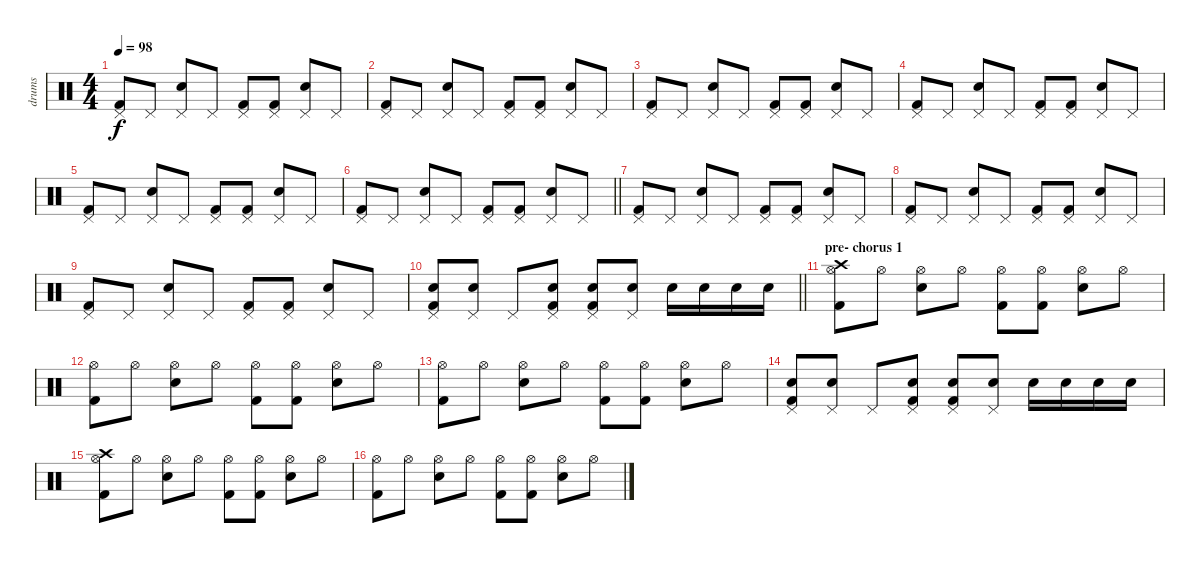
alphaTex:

\track ("drums" "drums") {instrument percussion}
\staff {score}
\articulation defaults
\ts (4 4)
\tempo 98
\clef neutral
\ks c
("Kick (hit) 2" "Pedal Hi-Hat (hit)").8{dy f} "Pedal Hi-Hat (hit)".8 ("Electric Snare (hit)" "Pedal Hi-Hat (hit)").8 "Pedal Hi-Hat (hit)".8 ("Kick (hit) 2" "Pedal Hi-Hat (hit)").8 ("Kick (hit) 2" "Pedal Hi-Hat (hit)").8 ("Electric Snare (hit)" "Pedal Hi-Hat (hit)").8 "Pedal Hi-Hat (hit)".8 |
("Kick (hit) 2" "Pedal Hi-Hat (hit)").8 "Pedal Hi-Hat (hit)".8 ("Electric Snare (hit)" "Pedal Hi-Hat (hit)").8 "Pedal Hi-Hat (hit)".8 ("Kick (hit) 2" "Pedal Hi-Hat (hit)").8 ("Kick (hit) 2" "Pedal Hi-Hat (hit)").8 ("Electric Snare (hit)" "Pedal Hi-Hat (hit)").8 "Pedal Hi-Hat (hit)".8 |
("Kick (hit) 2" "Pedal Hi-Hat (hit)").8 "Pedal Hi-Hat (hit)".8 ("Electric Snare (hit)" "Pedal Hi-Hat (hit)").8 "Pedal Hi-Hat (hit)".8 ("Kick (hit) 2" "Pedal Hi-Hat (hit)").8 ("Kick (hit) 2" "Pedal Hi-Hat (hit)").8 ("Electric Snare (hit)" "Pedal Hi-Hat (hit)").8 "Pedal Hi-Hat (hit)".8 |
("Kick (hit) 2" "Pedal Hi-Hat (hit)").8 "Pedal Hi-Hat (hit)".8 ("Electric Snare (hit)" "Pedal Hi-Hat (hit)").8 "Pedal Hi-Hat (hit)".8 ("Kick (hit) 2" "Pedal Hi-Hat (hit)").8 ("Kick (hit) 2" "Pedal Hi-Hat (hit)").8 ("Electric Snare (hit)" "Pedal Hi-Hat (hit)").8 "Pedal Hi-Hat (hit)".8 |
("Kick (hit) 2" "Pedal Hi-Hat (hit)").8 "Pedal Hi-Hat (hit)".8 ("Electric Snare (hit)" "Pedal Hi-Hat (hit)").8 "Pedal Hi-Hat (hit)".8 ("Kick (hit) 2" "Pedal Hi-Hat (hit)").8 ("Kick (hit) 2" "Pedal Hi-Hat (hit)").8 ("Electric Snare (hit)" "Pedal Hi-Hat (hit)").8 "Pedal Hi-Hat (hit)".8 |
\barLineRight lightlight
("Kick (hit) 2" "Pedal Hi-Hat (hit)").8 "Pedal Hi-Hat (hit)".8 ("Electric Snare (hit)" "Pedal Hi-Hat (hit)").8 "Pedal Hi-Hat (hit)".8 ("Kick (hit) 2" "Pedal Hi-Hat (hit)").8 ("Kick (hit) 2" "Pedal Hi-Hat (hit)").8 ("Electric Snare (hit)" "Pedal Hi-Hat (hit)").8 "Pedal Hi-Hat (hit)".8 |
("Kick (hit) 2" "Pedal Hi-Hat (hit)").8 "Pedal Hi-Hat (hit)".8 ("Electric Snare (hit)" "Pedal Hi-Hat (hit)").8 "Pedal Hi-Hat (hit)".8 ("Kick (hit) 2" "Pedal Hi-Hat (hit)").8 ("Kick (hit) 2" "Pedal Hi-Hat (hit)").8 ("Electric Snare (hit)" "Pedal Hi-Hat (hit)").8 "Pedal Hi-Hat (hit)".8 |
("Kick (hit) 2" "Pedal Hi-Hat (hit)").8 "Pedal Hi-Hat (hit)".8 ("Electric Snare (hit)" "Pedal Hi-Hat (hit)").8 "Pedal Hi-Hat (hit)".8 ("Kick (hit) 2" "Pedal Hi-Hat (hit)").8 ("Kick (hit) 2" "Pedal Hi-Hat (hit)").8 ("Electric Snare (hit)" "Pedal Hi-Hat (hit)").8 "Pedal Hi-Hat (hit)".8 |
("Kick (hit) 2" "Pedal Hi-Hat (hit)").8 "Pedal Hi-Hat (hit)".8 ("Electric Snare (hit)" "Pedal Hi-Hat (hit)").8 "Pedal Hi-Hat (hit)".8 ("Kick (hit) 2" "Pedal Hi-Hat (hit)").8 ("Kick (hit) 2" "Pedal Hi-Hat (hit)").8 ("Electric Snare (hit)" "Pedal Hi-Hat (hit)").8 "Pedal Hi-Hat (hit)".8 |
\barLineRight lightlight
("Kick (hit) 2" "Electric Snare (hit)" "Pedal Hi-Hat (hit)").8 ("Electric Snare (hit)" "Pedal Hi-Hat (hit)").8 "Pedal Hi-Hat (hit)".8 ("Kick (hit) 2" "Electric Snare (hit)" "Pedal Hi-Hat (hit)").8 ("Kick (hit) 2" "Electric Snare (hit)" "Pedal Hi-Hat (hit)").8 ("Electric Snare (hit)" "Pedal Hi-Hat (hit)").8 "Electric Snare (hit)".16 "Electric Snare (hit)".16 "Electric Snare (hit)".16 "Electric Snare (hit)".16 |
\section ("" "pre- chorus 1")
("Kick (hit) 2" "Hi-Hat (open)" "Crash high (hit)").8 "Hi-Hat (open)".8 ("Electric Snare (hit)" "Hi-Hat (open)").8 "Hi-Hat (open)".8 ("Kick (hit) 2" "Hi-Hat (open)").8 ("Kick (hit) 2" "Hi-Hat (open)").8 ("Electric Snare (hit)" "Hi-Hat (open)").8 "Hi-Hat (open)".8 |
("Kick (hit) 2" "Hi-Hat (open)").8 "Hi-Hat (open)".8 ("Electric Snare (hit)" "Hi-Hat (open)").8 "Hi-Hat (open)".8 ("Kick (hit) 2" "Hi-Hat (open)").8 ("Kick (hit) 2" "Hi-Hat (open)").8 ("Electric Snare (hit)" "Hi-Hat (open)").8 "Hi-Hat (open)".8 |
("Kick (hit) 2" "Hi-Hat (open)").8 "Hi-Hat (open)".8 ("Electric Snare (hit)" "Hi-Hat (open)").8 "Hi-Hat (open)".8 ("Kick (hit) 2" "Hi-Hat (open)").8 ("Kick (hit) 2" "Hi-Hat (open)").8 ("Electric Snare (hit)" "Hi-Hat (open)").8 "Hi-Hat (open)".8 |
("Kick (hit) 2" "Electric Snare (hit)" "Pedal Hi-Hat (hit)").8 ("Electric Snare (hit)" "Pedal Hi-Hat (hit)").8 "Pedal Hi-Hat (hit)".8 ("Kick (hit) 2" "Electric Snare (hit)" "Pedal Hi-Hat (hit)").8 ("Kick (hit) 2" "Electric Snare (hit)" "Pedal Hi-Hat (hit)").8 ("Electric Snare (hit)" "Pedal Hi-Hat (hit)").8 "Electric Snare (hit)".16 "Electric Snare (hit)".16 "Electric Snare (hit)".16 "Electric Snare (hit)".16 |
("Kick (hit) 2" "Hi-Hat (open)" "Crash high (hit)").8 "Hi-Hat (open)".8 ("Electric Snare (hit)" "Hi-Hat (open)").8 "Hi-Hat (open)".8 ("Kick (hit) 2" "Hi-Hat (open)").8 ("Kick (hit) 2" "Hi-Hat (open)").8 ("Electric Snare (hit)" "Hi-Hat (open)").8 "Hi-Hat (open)".8 |
("Kick (hit) 2" "Hi-Hat (open)").8 "Hi-Hat (open)".8 ("Electric Snare (hit)" "Hi-Hat (open)").8 "Hi-Hat (open)".8 ("Kick (hit) 2" "Hi-Hat (open)").8 ("Kick (hit) 2" "Hi-Hat (open)").8 ("Electric Snare (hit)" "Hi-Hat (open)").8 "Hi-Hat (open)".8
